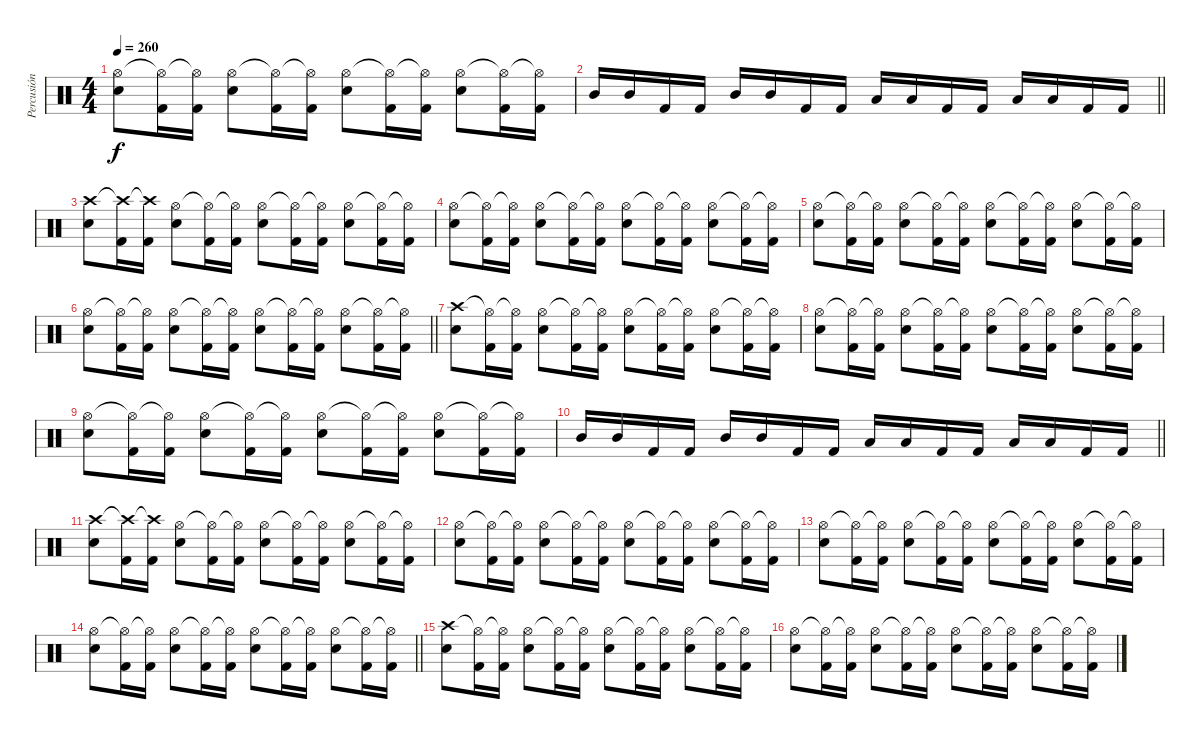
\track ("Percusión" "Percusión") {instrument percussion}
\staff {score}
\articulation defaults
\ts (4 4)
\tempo 260
\clef neutral
\ks c
("Snare (hit) 2" "Hi-Hat (open)").8{dy f} ("Kick (hit) 2" "Hi-Hat (open)"{t}).16 ("Kick (hit) 2" "Hi-Hat (open)"{t}).16 ("Snare (hit) 2" "Hi-Hat (open)").8 ("Kick (hit) 2" "Hi-Hat (open)"{t}).16 ("Kick (hit) 2" "Hi-Hat (open)"{t}).16 ("Snare (hit) 2" "Hi-Hat (open)").8 ("Kick (hit) 2" "Hi-Hat (open)"{t}).16 ("Kick (hit) 2" "Hi-Hat (open)"{t}).16 ("Snare (hit) 2" "Hi-Hat (open)").8 ("Kick (hit) 2" "Hi-Hat (open)"{t}).16 ("Kick (hit) 2" "Hi-Hat (open)"{t}).16 |
\barLineRight lightlight "Mid Tom (hit)".16 "Mid Tom (hit)".16 "Kick (hit) 2".16 "Kick (hit) 2".16 "Mid Tom (hit)".16 "Mid Tom (hit)".16 "Kick (hit) 2".16 "Kick (hit) 2".16 "Low Tom (hit)".16 "Low Tom (hit)".16 "Kick (hit) 2".16 "Kick (hit) 2".16 "Low Tom (hit)".16 "Low Tom (hit)".16 "Kick (hit) 2".16 "Kick (hit) 2".16
|
("Snare (hit) 2" "Crash high (hit)").8 ("Kick (hit) 2" "Crash high (hit)"{t}).16 ("Kick (hit) 2" "Crash high (hit)"{t}).16 ("Snare (hit) 2" "Hi-Hat (open)").8 ("Kick (hit) 2" "Hi-Hat (open)"{t}).16 ("Kick (hit) 2" "Hi-Hat (open)"{t}).16 ("Snare (hit) 2" "Hi-Hat (open)").8 ("Kick (hit) 2" "Hi-Hat (open)"{t}).16 ("Kick (hit) 2" "Hi-Hat (open)"{t}).16 ("Snare (hit) 2" "Hi-Hat (open)").8 ("Kick (hit) 2" "Hi-Hat (open)"{t}).16 ("Kick (hit) 2" "Hi-Hat (open)"{t}).16 |
("Snare (hit) 2" "Hi-Hat (open)").8 ("Kick (hit) 2" "Hi-Hat (open)"{t}).16 ("Kick (hit) 2" "Hi-Hat (open)"{t}).16 ("Snare (hit) 2" "Hi-Hat (open)").8 ("Kick (hit) 2" "Hi-Hat (open)"{t}).16 ("Kick (hit) 2" "Hi-Hat (open)"{t}).16 ("Snare (hit) 2" "Hi-Hat (open)").8 ("Kick (hit) 2" "Hi-Hat (open)"{t}).16 ("Kick (hit) 2" "Hi-Hat (open)"{t}).16 ("Snare (hit) 2" "Hi-Hat (open)").8 ("Kick (hit) 2" "Hi-Hat (open)"{t}).16 ("Kick (hit) 2" "Hi-Hat (open)"{t}).16 |
("Snare (hit) 2" "Hi-Hat (open)").8 ("Kick (hit) 2" "Hi-Hat (open)"{t}).16 ("Kick (hit) 2" "Hi-Hat (open)"{t}).16 ("Snare (hit) 2" "Hi-Hat (open)").8 ("Kick (hit) 2" "Hi-Hat (open)"{t}).16 ("Kick (hit) 2" "Hi-Hat (open)"{t}).16 ("Snare (hit) 2" "Hi-Hat (open)").8 ("Kick (hit) 2" "Hi-Hat (open)"{t}).16 ("Kick (hit) 2" "Hi-Hat (open)"{t}).16 ("Snare (hit) 2" "Hi-Hat (open)").8 ("Kick (hit) 2" "Hi-Hat (open)"{t}).16 ("Kick (hit) 2" "Hi-Hat (open)"{t}).16 |
\barLineRight lightlight
("Snare (hit) 2" "Hi-Hat (open)").8 ("Kick (hit) 2" "Hi-Hat (open)"{t}).16 ("Kick (hit) 2" "Hi-Hat (open)"{t}).16 ("Snare (hit) 2" "Hi-Hat (open)").8 ("Kick (hit) 2" "Hi-Hat (open)"{t}).16 ("Kick (hit) 2" "Hi-Hat (open)"{t}).16 ("Snare (hit) 2" "Hi-Hat (open)").8 ("Kick (hit) 2" "Hi-Hat (open)"{t}).16 ("Kick (hit) 2" "Hi-Hat (open)"{t}).16 ("Snare (hit) 2" "Hi-Hat (open)").8 ("Kick (hit) 2" "Hi-Hat (open)"{t}).16 ("Kick (hit) 2" "Hi-Hat (open)"{t}).16 |
("Snare (hit) 2" "Crash high (hit)").8 ("Kick (hit) 2" "Hi-Hat (open)"{t}).16 ("Kick (hit) 2" "Hi-Hat (open)"{t}).16 ("Snare (hit) 2" "Hi-Hat (open)").8 ("Kick (hit) 2" "Hi-Hat (open)"{t}).16 ("Kick (hit) 2" "Hi-Hat (open)"{t}).16 ("Snare (hit) 2" "Hi-Hat (open)").8 ("Kick (hit) 2" "Hi-Hat (open)"{t}).16 ("Kick (hit) 2" "Hi-Hat (open)"{t}).16 ("Snare (hit) 2" "Hi-Hat (open)").8 ("Kick (hit) 2" "Hi-Hat (open)"{t}).16 ("Kick (hit) 2" "Hi-Hat (open)"{t}).16 |
("Snare (hit) 2" "Hi-Hat (open)").8 ("Kick (hit) 2" "Hi-Hat (open)"{t}).16 ("Kick (hit) 2" "Hi-Hat (open)"{t}).16 ("Snare (hit) 2" "Hi-Hat (open)").8 ("Kick (hit) 2" "Hi-Hat (open)"{t}).16 ("Kick (hit) 2" "Hi-Hat (open)"{t}).16 ("Snare (hit) 2" "Hi-Hat (open)").8 ("Kick (hit) 2" "Hi-Hat (open)"{t}).16 ("Kick (hit) 2" "Hi-Hat (open)"{t}).16 ("Snare (hit) 2" "Hi-Hat (open)").8 ("Kick (hit) 2" "Hi-Hat (open)"{t}).16 ("Kick (hit) 2" "Hi-Hat (open)"{t}).16 |
("Snare (hit) 2" "Hi-Hat (open)").8 ("Kick (hit) 2" "Hi-Hat (open)"{t}).16 ("Kick (hit) 2" "Hi-Hat (open)"{t}).16 ("Snare (hit) 2" "Hi-Hat (open)").8 ("Kick (hit) 2" "Hi-Hat (open)"{t}).16 ("Kick (hit) 2" "Hi-Hat (open)"{t}).16 ("Snare (hit) 2" "Hi-Hat (open)").8 ("Kick (hit) 2" "Hi-Hat (open)"{t}).16 ("Kick (hit) 2" "Hi-Hat (open)"{t}).16 ("Snare (hit) 2" "Hi-Hat (open)").8 ("Kick (hit) 2" "Hi-Hat (open)"{t}).16 ("Kick (hit) 2" "Hi-Hat (open)"{t}).16 |
\barLineRight lightlight "Mid Tom (hit)".16 "Mid Tom (hit)".16 "Kick (hit) 2".16 "Kick (hit) 2".16 "Mid Tom (hit)".16 "Mid Tom (hit)".16 "Kick (hit) 2".16 "Kick (hit) 2".16 "Low Tom (hit)".16 "Low Tom (hit)".16 "Kick (hit) 2".16 "Kick (hit) 2".16 "Low Tom (hit)".16 "Low Tom (hit)".16 "Kick (hit) 2".16 "Kick (hit) 2".16
|
("Snare (hit) 2" "Crash high (hit)").8 ("Kick (hit) 2" "Crash high (hit)"{t}).16 ("Kick (hit) 2" "Crash high (hit)"{t}).16 ("Snare (hit) 2" "Hi-Hat (open)").8 ("Kick (hit) 2" "Hi-Hat (open)"{t}).16 ("Kick (hit) 2" "Hi-Hat (open)"{t}).16 ("Snare (hit) 2" "Hi-Hat (open)").8 ("Kick (hit) 2" "Hi-Hat (open)"{t}).16 ("Kick (hit) 2" "Hi-Hat (open)"{t}).16 ("Snare (hit) 2" "Hi-Hat (open)").8 ("Kick (hit) 2" "Hi-Hat (open)"{t}).16 ("Kick (hit) 2" "Hi-Hat (open)"{t}).16 |
("Snare (hit) 2" "Hi-Hat (open)").8 ("Kick (hit) 2" "Hi-Hat (open)"{t}).16 ("Kick (hit) 2" "Hi-Hat (open)"{t}).16 ("Snare (hit) 2" "Hi-Hat (open)").8 ("Kick (hit) 2" "Hi-Hat (open)"{t}).16 ("Kick (hit) 2" "Hi-Hat (open)"{t}).16 ("Snare (hit) 2" "Hi-Hat (open)").8 ("Kick (hit) 2" "Hi-Hat (open)"{t}).16 ("Kick (hit) 2" "Hi-Hat (open)"{t}).16 ("Snare (hit) 2" "Hi-Hat (open)").8 ("Kick (hit) 2" "Hi-Hat (open)"{t}).16 ("Kick (hit) 2" "Hi-Hat (open)"{t}).16 |
("Snare (hit) 2" "Hi-Hat (open)").8 ("Kick (hit) 2" "Hi-Hat (open)"{t}).16 ("Kick (hit) 2" "Hi-Hat (open)"{t}).16 ("Snare (hit) 2" "Hi-Hat (open)").8 ("Kick (hit) 2" "Hi-Hat (open)"{t}).16 ("Kick (hit) 2" "Hi-Hat (open)"{t}).16 ("Snare (hit) 2" "Hi-Hat (open)").8 ("Kick (hit) 2" "Hi-Hat (open)"{t}).16 ("Kick (hit) 2" "Hi-Hat (open)"{t}).16 ("Snare (hit) 2" "Hi-Hat (open)").8 ("Kick (hit) 2" "Hi-Hat (open)"{t}).16 ("Kick (hit) 2" "Hi-Hat (open)"{t}).16 |
\barLineRight lightlight
("Snare (hit) 2" "Hi-Hat (open)").8 ("Kick (hit) 2" "Hi-Hat (open)"{t}).16 ("Kick (hit) 2" "Hi-Hat (open)"{t}).16 ("Snare (hit) 2" "Hi-Hat (open)").8 ("Kick (hit) 2" "Hi-Hat (open)"{t}).16 ("Kick (hit) 2" "Hi-Hat (open)"{t}).16 ("Snare (hit) 2" "Hi-Hat (open)").8 ("Kick (hit) 2" "Hi-Hat (open)"{t}).16 ("Kick (hit) 2" "Hi-Hat (open)"{t}).16 ("Snare (hit) 2" "Hi-Hat (open)").8 ("Kick (hit) 2" "Hi-Hat (open)"{t}).16 ("Kick (hit) 2" "Hi-Hat (open)"{t}).16 |
("Snare (hit) 2" "Crash high (hit)").8 ("Kick (hit) 2" "Hi-Hat (open)"{t}).16 ("Kick (hit) 2" "Hi-Hat (open)"{t}).16 ("Snare (hit) 2" "Hi-Hat (open)").8 ("Kick (hit) 2" "Hi-Hat (open)"{t}).16 ("Kick (hit) 2" "Hi-Hat (open)"{t}).16 ("Snare (hit) 2" "Hi-Hat (open)").8 ("Kick (hit) 2" "Hi-Hat (open)"{t}).16 ("Kick (hit) 2" "Hi-Hat (open)"{t}).16 ("Snare (hit) 2" "Hi-Hat (open)").8 ("Kick (hit) 2" "Hi-Hat (open)"{t}).16 ("Kick (hit) 2" "Hi-Hat (open)"{t}).16 |
("Snare (hit) 2" "Hi-Hat (open)").8 ("Kick (hit) 2" "Hi-Hat (open)"{t}).16 ("Kick (hit) 2" "Hi-Hat (open)"{t}).16 ("Snare (hit) 2" "Hi-Hat (open)").8 ("Kick (hit) 2" "Hi-Hat (open)"{t}).16 ("Kick (hit) 2" "Hi-Hat (open)"{t}).16 ("Snare (hit) 2" "Hi-Hat (open)").8 ("Kick (hit) 2" "Hi-Hat (open)"{t}).16 ("Kick (hit) 2" "Hi-Hat (open)"{t}).16 ("Snare (hit) 2" "Hi-Hat (open)").8 ("Kick (hit) 2" "Hi-Hat (open)"{t}).16 ("Kick (hit) 2" "Hi-Hat (open)"{t}).16
